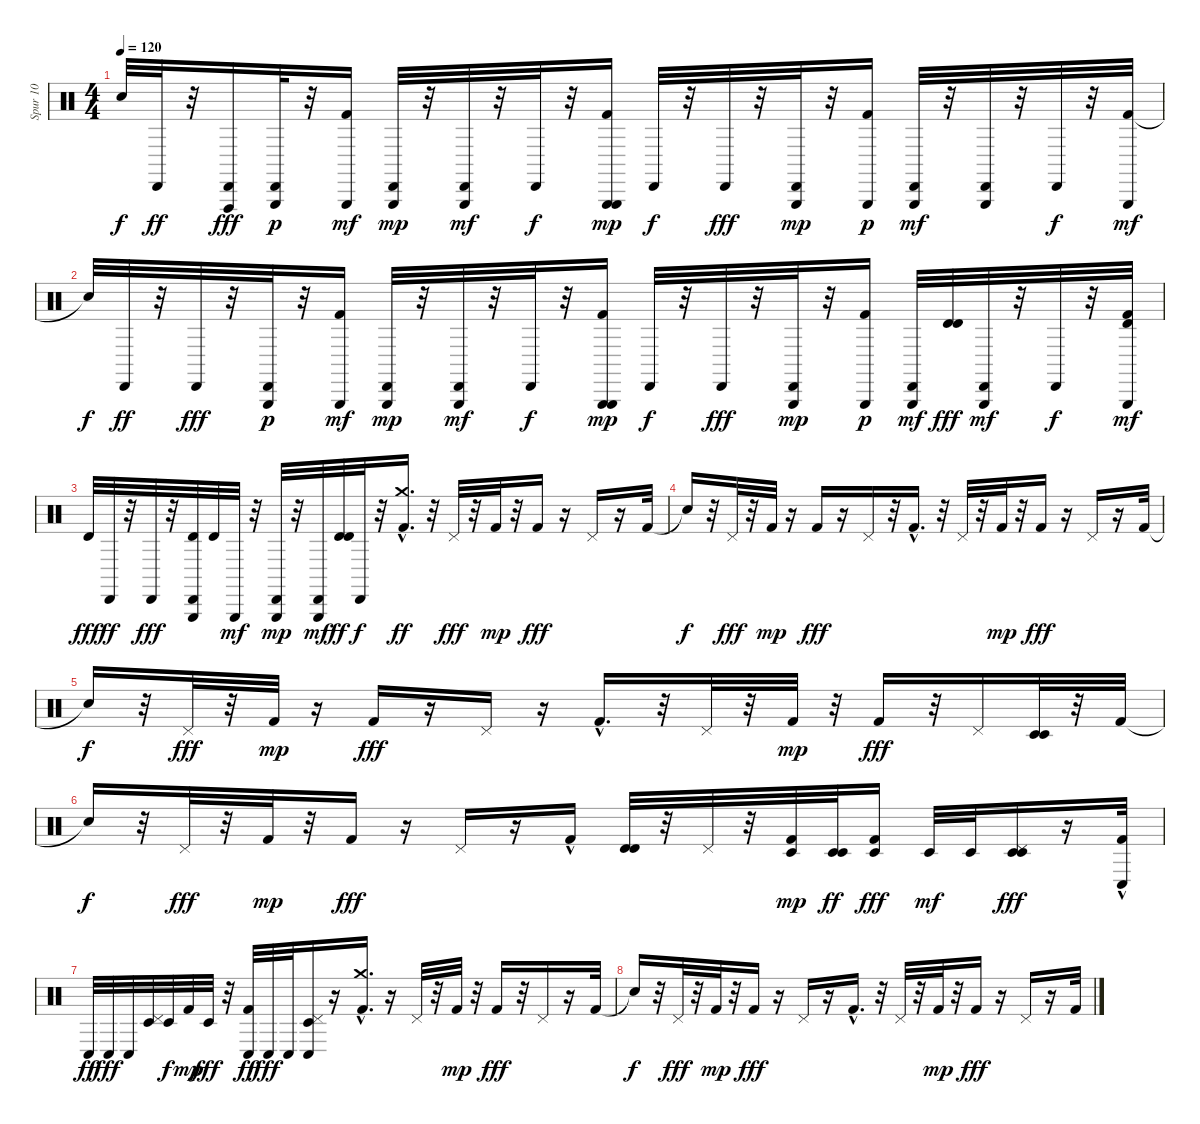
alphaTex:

\track ("Spur 10" "Spur 10") {instrument percussion}
\staff {score}
\articulation defaults
\ts (4 4)
\tempo 120
\clef neutral
\ks c "Snare (hit)"{t}.32{dy f} "Cabasa (hit)".32{dy ff}
r.32 ("Vibraslap (hit)" "Cabasa (hit)").16{dy fff} ("Cabasa (hit)" "Triangle (hit)").32{dy p} r.32 ("Kick (hit) 2" "Triangle (hit)").16{dy mf} ("Cabasa (hit)" "Triangle (hit)").32{dy mp} r.32 ("Cabasa (hit)" "Triangle (hit)").32{dy mf} r.32 "Cabasa (hit)".32{dy f} r.32 ("Kick (hit) 2" "Triangle (hit)" "Triangle (hit)").16{dy mp} "Cabasa (hit)".32{dy f} r.32 "Cabasa (hit)".32{dy fff} r.32 ("Cabasa (hit)" "Triangle (hit)").32{dy mp} r.32 ("Kick (hit) 2" "Triangle (hit)").16{dy p} ("Triangle (hit)" "Cabasa (hit)").32{dy mf} r.32 ("Cabasa (hit)" "Triangle (hit)").32 r.32 "Cabasa (hit)".32{dy f} r.32 ("Kick (hit) 2" "Triangle (hit)").32{dy mf} |
"Snare (hit)"{t}.32{dy f} "Cabasa (hit)".32{dy ff} r.32 "Cabasa (hit)".32{dy fff} r.32 ("Cabasa (hit)" "Triangle (hit)").32{dy p} r.32 ("Kick (hit) 2" "Triangle (hit)").16{dy mf} ("Cabasa (hit)" "Triangle (hit)").32{dy mp} r.32 ("Cabasa (hit)" "Triangle (hit)").32{dy mf} r.32 "Cabasa (hit)".32{dy f} r.32 ("Kick (hit) 2" "Triangle (hit)" "Triangle (hit)").16{dy mp} "Cabasa (hit)".32{dy f} r.32 "Cabasa (hit)".32{dy fff} r.32 ("Cabasa (hit)" "Triangle (hit)").32{dy mp} r.32 ("Kick (hit) 2" "Triangle (hit)").16{dy p} ("Triangle (hit)" "Cabasa (hit)").32{dy mf} ("Timbale high (hit)" "Timbale high (hit)").32{dy fff} ("Cabasa (hit)" "Triangle (hit)").32{dy mf} r.32 "Cabasa (hit)".32{dy f} r.32 ("Timbale high (hit)" "Kick (hit) 2" "Triangle (hit)").32{dy mf} |
"Timbale high (hit)".32{dy fff} "Cabasa (hit)".32{dy ff} r.32 "Cabasa (hit)".32{dy fff} r.32 ("Cabasa (hit)" "Triangle (hit)" "Timbale high (hit)").32 "Timbale high (hit)".32 "Triangle (hit)".32{dy mf} r.32 ("Cabasa (hit)" "Triangle (hit)").32{dy mp} r.32 ("Cabasa (hit)" "Triangle (hit)").32{dy mf} ("Timbale high (hit)" "Timbale high (hit)").32{dy ff} "Cabasa (hit)".32{dy f} r.32 ("Kick (hit) 2"{hac} "Crash medium (hit)").16{d dy ff} r.32 "Pedal Hi-Hat (hit)".32{dy fff} r.32 "Kick (hit) 2".32{dy mp} r.32 "Kick (hit) 2".16{dy fff} r.16 "Pedal Hi-Hat (hit)".16 r.16 "Kick (hit) 2".32 |
"Snare (hit)"{t}.16{dy f} r.32 "Pedal Hi-Hat (hit)".32{dy fff} r.32 "Kick (hit) 2".32{dy mp} r.16 "Kick (hit) 2".16{dy fff} r.16 "Pedal Hi-Hat (hit)".16 r.32 "Kick (hit) 2"{hac}.16{d} r.32 "Pedal Hi-Hat (hit)".32 r.32 "Kick (hit) 2".32{dy mp} r.32 "Kick (hit) 2".16{dy fff} r.16 "Pedal Hi-Hat (hit)".16 r.16 "Kick (hit) 2".32 |
"Snare (hit)"{t}.16{dy f} r.32 "Pedal Hi-Hat (hit)".32{dy fff} r.32 "Kick (hit) 2".32{dy mp} r.16 "Kick (hit) 2".16{dy fff} r.16 "Pedal Hi-Hat (hit)".16 r.16 "Kick (hit) 2"{hac}.16{d} r.32 "Pedal Hi-Hat (hit)".32 r.32 "Kick (hit) 2".32{dy mp} r.32 "Kick (hit) 2".16{dy fff} r.32 "Pedal Hi-Hat (hit)".16 ("Timbale low (hit)" "Timbale low (hit)").32 r.32 "Kick (hit) 2".32 |
"Snare (hit)"{t}.16{dy f} r.32 "Pedal Hi-Hat (hit)".32{dy fff} r.32 "Kick (hit) 2".32{dy mp} r.32 "Kick (hit) 2".16{dy fff} r.16 "Pedal Hi-Hat (hit)".16 r.16 "Kick (hit) 2"{hac}.16 ("Timbale high (hit)" "Timbale high (hit)").32 r.32 "Pedal Hi-Hat (hit)".32 r.32 ("Timbale low (hit)" "Kick (hit) 2").32{dy mp} ("Timbale low (hit)" "Timbale low (hit)").32{dy ff} ("Timbale low (hit)" "Kick (hit) 2").16{dy fff} "Timbale low (hit)".32{dy mf} "Timbale low (hit)".32 ("Timbale low (hit)" "Timbale low (hit)" "Pedal Hi-Hat (hit)").16{dy fff} r.16 ("Conga low (hit)" "Kick (hit) 2"{hac}).32 |
"Conga low (hit)".32{dy ff} "Conga low (hit)".32{dy fff} "Conga low (hit)".32 ("Timbale low (hit)" "Pedal Hi-Hat (hit)").32 "Timbale low (hit)".32{dy f} "Kick (hit) 2".32{dy mp} "Timbale low (hit)".32{dy fff} r.32 ("Kick (hit) 2" "Conga low (hit)").32{dy ff} "Conga low (hit)".32{dy fff} "Conga low (hit)".32 ("Conga low (hit)" "Timbale low (hit)" "Pedal Hi-Hat (hit)").16 r.16 ("Crash medium (hit)"{hac} "Kick (hit) 2"{hac}).16{d} r.16 "Pedal Hi-Hat (hit)".32 r.32 "Kick (hit) 2".32{dy mp} r.32 "Kick (hit) 2".16{dy fff} r.32 "Pedal Hi-Hat (hit)".16 r.16 "Kick (hit) 2".32 |
"Snare (hit)"{t}.16{dy f} r.32 "Pedal Hi-Hat (hit)".32{dy fff} r.32 "Kick (hit) 2".32{dy mp} r.32 "Kick (hit) 2".16{dy fff} r.16 "Pedal Hi-Hat (hit)".16 r.16 "Kick (hit) 2"{hac}.16{d} r.32 "Pedal Hi-Hat (hit)".32 r.32 "Kick (hit) 2".32{dy mp} r.32 "Kick (hit) 2".16{dy fff} r.16 "Pedal Hi-Hat (hit)".16 r.16 "Kick (hit) 2".32
